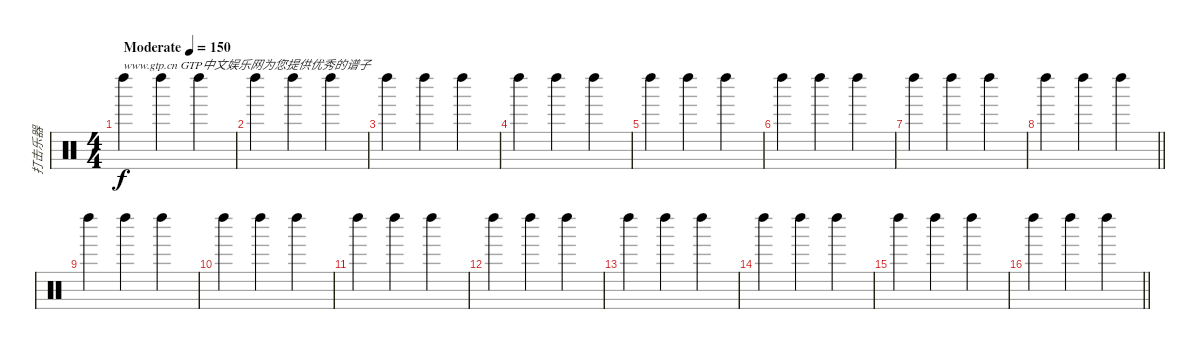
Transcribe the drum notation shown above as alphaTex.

\track ("打击乐器" "打击乐器") {instrument percussion bank 2}
\staff {score}
\articulation defaults
\ts (4 4)
\tempo (150 "Moderate")
\clef neutral
\ks c "Left Maraca (hit)".4{txt "www.gtp.cn GTP中文娱乐网为您提供优秀的谱子" dy f} "Left Maraca (hit)".4 "Left Maraca (hit)".4
|
"Left Maraca (hit)".4 "Left Maraca (hit)".4 "Left Maraca (hit)".4 |
"Left Maraca (hit)".4 "Left Maraca (hit)".4 "Left Maraca (hit)".4 |
"Left Maraca (hit)".4 "Left Maraca (hit)".4 "Left Maraca (hit)".4 |
"Left Maraca (hit)".4 "Left Maraca (hit)".4 "Left Maraca (hit)".4 |
"Left Maraca (hit)".4 "Left Maraca (hit)".4 "Left Maraca (hit)".4 |
"Left Maraca (hit)".4 "Left Maraca (hit)".4 "Left Maraca (hit)".4 |
\barLineRight lightlight "Left Maraca (hit)".4 "Left Maraca (hit)".4 "Left Maraca (hit)".4
|
"Left Maraca (hit)".4 "Left Maraca (hit)".4 "Left Maraca (hit)".4 |
"Left Maraca (hit)".4 "Left Maraca (hit)".4 "Left Maraca (hit)".4 |
"Left Maraca (hit)".4 "Left Maraca (hit)".4 "Left Maraca (hit)".4 |
"Left Maraca (hit)".4 "Left Maraca (hit)".4 "Left Maraca (hit)".4 |
"Left Maraca (hit)".4 "Left Maraca (hit)".4 "Left Maraca (hit)".4 |
"Left Maraca (hit)".4 "Left Maraca (hit)".4 "Left Maraca (hit)".4 |
"Left Maraca (hit)".4 "Left Maraca (hit)".4 "Left Maraca (hit)".4 |
\barLineRight lightlight "Left Maraca (hit)".4 "Left Maraca (hit)".4 "Left Maraca (hit)".4
